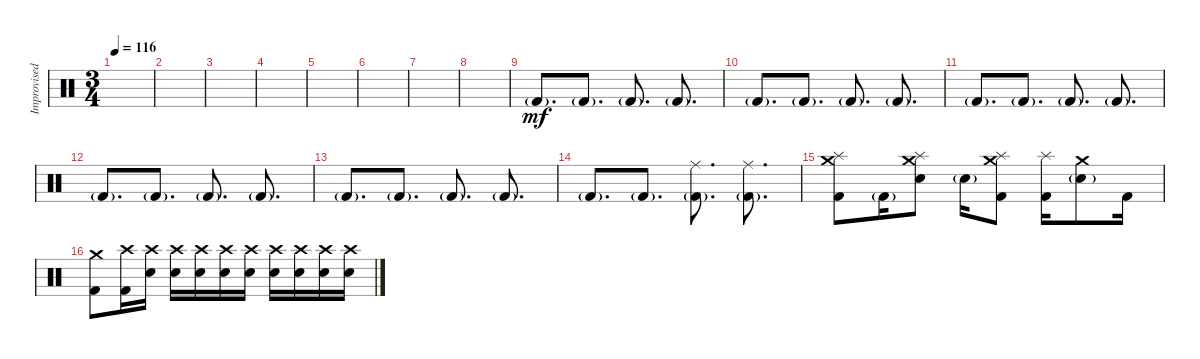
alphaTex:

\track ("Improvised Drums" "Improvised") {instrument percussion}
\staff {score}
\articulation defaults
\ts (3 4)
\tempo 116
\clef neutral
\ks c
|
|
|
|
|
|
|
|
"Kick (hit) 2"{g}.8{d dy mf} "Kick (hit) 2"{g}.8{d} "Kick (hit) 2"{g}.8{d} "Kick (hit) 2"{g}.8{d} |
"Kick (hit) 2"{g}.8{d} "Kick (hit) 2"{g}.8{d} "Kick (hit) 2"{g}.8{d} "Kick (hit) 2"{g}.8{d} |
"Kick (hit) 2"{g}.8{d} "Kick (hit) 2"{g}.8{d} "Kick (hit) 2"{g}.8{d} "Kick (hit) 2"{g}.8{d} |
"Kick (hit) 2"{g}.8{d} "Kick (hit) 2"{g}.8{d} "Kick (hit) 2"{g}.8{d} "Kick (hit) 2"{g}.8{d} |
"Kick (hit) 2"{g}.8{d} "Kick (hit) 2"{g}.8{d} "Kick (hit) 2"{g}.8{d} "Kick (hit) 2"{g}.8{d} |
"Kick (hit) 2"{g}.8{d} "Kick (hit) 2"{g}.8{d} ("Ride (middle)" "Kick (hit) 2"{g}).8{d} ("Ride (middle)" "Kick (hit) 2"{g}).8{d} |
("Crash medium (hit)" "Splash (hit)" "Kick (hit) 2").8 "Kick (hit) 2"{g}.16 ("Crash medium (hit)" "Splash (hit)" "Snare (hit) 2").8 "Snare (hit) 2"{g}.16 ("Crash medium (hit)" "Splash (hit)" "Kick (hit) 2").8 ("Splash (hit)" "Kick (hit) 2").16 ("Crash medium (hit)" "Snare (hit) 2"{g}).8 "Kick (hit) 2".16 |
("Crash medium (hit)" "Kick (hit) 2").8 ("Crash high (hit)" "Kick (hit) 2").16 ("Crash high (hit)" "Snare (hit) 2").16 ("Crash high (hit)" "Snare (hit) 2").16 ("Crash high (hit)" "Snare (hit) 2").16 ("Crash high (hit)" "Snare (hit) 2").16 ("Crash high (hit)" "Snare (hit) 2").16 ("Crash high (hit)" "Snare (hit) 2").16 ("Crash high (hit)" "Snare (hit) 2").16 ("Crash high (hit)" "Snare (hit) 2").16 ("Crash high (hit)" "Snare (hit) 2").16
